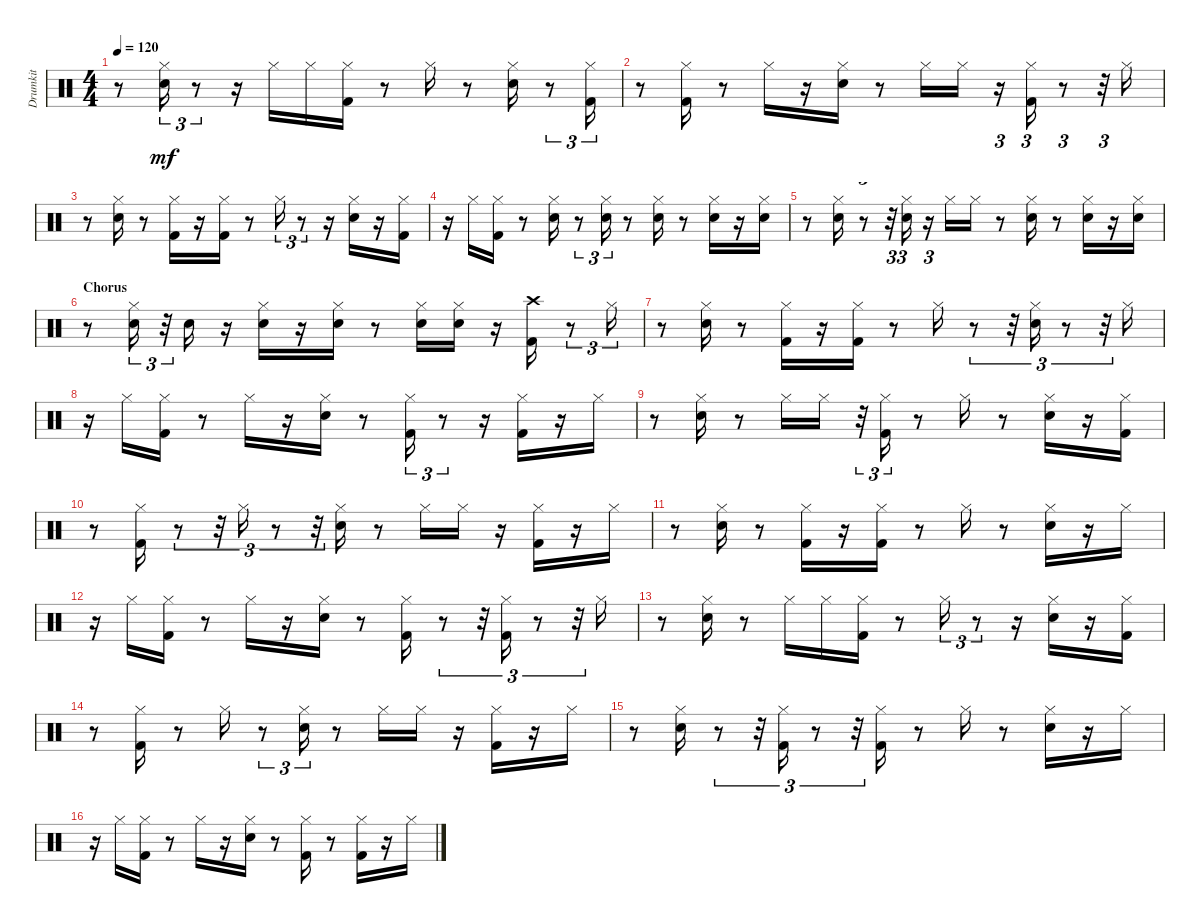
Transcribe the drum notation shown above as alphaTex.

\track ("Drumkit" "Drumkit") {instrument percussion}
\staff {score}
\articulation defaults
\ts (4 4)
\tempo 120
\clef neutral
\ks aminor
r.8{dy mf} ("Snare (hit) 2" "Hi-Hat (closed)").16{tu (3 2)} r.8{tu (3 2)} r.16 "Hi-Hat (closed)".16 "Hi-Hat (closed)".16 ("Kick (hit) 2" "Hi-Hat (closed)").16 r.8 "Hi-Hat (closed)".16 r.8 ("Snare (hit) 2" "Hi-Hat (closed)").16 r.8{tu (3 2)} ("Kick (hit) 2" "Hi-Hat (closed)").16{tu (3 2)} |
r.8 ("Kick (hit) 2" "Hi-Hat (closed)").16 r.8 "Hi-Hat (closed)".16 r.16 ("Snare (hit) 2" "Hi-Hat (closed)").16 r.8 "Hi-Hat (closed)".16 "Hi-Hat (closed)".16 r.16{tu (3 2)} ("Kick (hit) 2" "Hi-Hat (closed)").16{tu (3 2)} r.8{tu (3 2)} r.32{tu (3 2)} "Hi-Hat (closed)".16 |
r.8 ("Snare (hit) 2" "Hi-Hat (closed)").16 r.8 ("Kick (hit) 2" "Hi-Hat (closed)").16 r.16 ("Kick (hit) 2" "Hi-Hat (closed)").16 r.8 "Hi-Hat (closed)".16{tu (3 2)} r.8{tu (3 2)} r.16 ("Snare (hit) 2" "Hi-Hat (closed)").16 r.16 ("Kick (hit) 2" "Hi-Hat (closed)").16 |
r.16 "Hi-Hat (closed)".16 ("Kick (hit) 2" "Hi-Hat (closed)").16 r.8 ("Snare (hit) 2" "Hi-Hat (closed)").16 r.8{tu (3 2)} ("Snare (hit) 2" "Hi-Hat (closed)").16{tu (3 2)} r.8 ("Snare (hit) 2" "Hi-Hat (closed)").16 r.8 ("Snare (hit) 2" "Hi-Hat (closed)").16 r.16 ("Snare (hit) 2" "Hi-Hat (closed)").16 |
r.8 ("Snare (hit) 2" "Hi-Hat (closed)").16 r.8{tu (3 2)} r.32{tu (3 2)} ("Snare (hit) 2" "Hi-Hat (closed)").16{tu (3 2)} r.16{tu (3 2)} "Hi-Hat (closed)".16 "Hi-Hat (closed)".16 r.8 ("Snare (hit) 2" "Hi-Hat (closed)").16 r.8 ("Snare (hit) 2" "Hi-Hat (closed)").16 r.16 ("Snare (hit) 2" "Hi-Hat (closed)").16 |
\section ("" "Chorus")
r.8 ("Snare (hit) 2" "Hi-Hat (closed)").16{tu (3 2)} r.32{tu (3 2)} "Snare (hit) 2".16 r.16 ("Snare (hit) 2" "Hi-Hat (closed)").16 r.16 ("Snare (hit) 2" "Hi-Hat (closed)").16 r.8 ("Snare (hit) 2" "Hi-Hat (closed)").16 ("Snare (hit) 2" "Hi-Hat (closed)").16 r.16 ("Kick (hit) 2" "Crash high (hit)").16 r.8{tu (3 2)} "Hi-Hat (closed)".16{tu (3 2)} |
r.8 ("Snare (hit) 2" "Hi-Hat (closed)").16 r.8 ("Kick (hit) 2" "Hi-Hat (closed)").16 r.16 ("Kick (hit) 2" "Hi-Hat (closed)").16 r.8 "Hi-Hat (closed)".16 r.8{tu (3 2)} r.32{tu (3 2)} ("Snare (hit) 2" "Hi-Hat (closed)").16{tu (3 2)} r.8{tu (3 2)} r.32{tu (3 2)} "Hi-Hat (closed)".16 |
r.16 "Hi-Hat (closed)".16 ("Kick (hit) 2" "Hi-Hat (closed)").16 r.8 "Hi-Hat (closed)".16 r.16 ("Snare (hit) 2" "Hi-Hat (closed)").16 r.8 ("Kick (hit) 2" "Hi-Hat (closed)").16{tu (3 2)} r.8{tu (3 2)} r.16 ("Kick (hit) 2" "Hi-Hat (closed)").16 r.16 "Hi-Hat (closed)".16 |
r.8 ("Snare (hit) 2" "Hi-Hat (closed)").16 r.8 "Hi-Hat (closed)".16 "Hi-Hat (closed)".16 r.32{tu (3 2)} ("Kick (hit) 2" "Hi-Hat (closed)").16{tu (3 2)} r.8 "Hi-Hat (closed)".16 r.8 ("Snare (hit) 2" "Hi-Hat (closed)").16 r.16 ("Kick (hit) 2" "Hi-Hat (closed)").16 |
r.8 ("Kick (hit) 2" "Hi-Hat (closed)").16 r.8{tu (3 2)} r.32{tu (3 2)} "Hi-Hat (closed)".16{tu (3 2)} r.8{tu (3 2)} r.32{tu (3 2)} ("Snare (hit) 2" "Hi-Hat (closed)").16 r.8 "Hi-Hat (closed)".16 "Hi-Hat (closed)".16 r.16 ("Kick (hit) 2" "Hi-Hat (closed)").16 r.16 "Hi-Hat (closed)".16 |
r.8 ("Snare (hit) 2" "Hi-Hat (closed)").16 r.8 ("Kick (hit) 2" "Hi-Hat (closed)").16 r.16 ("Kick (hit) 2" "Hi-Hat (closed)").16 r.8 "Hi-Hat (closed)".16 r.8 ("Snare (hit) 2" "Hi-Hat (closed)").16 r.16 "Hi-Hat (closed)".16 |
r.16 "Hi-Hat (closed)".16 ("Kick (hit) 2" "Hi-Hat (closed)").16 r.8 "Hi-Hat (closed)".16 r.16 ("Snare (hit) 2" "Hi-Hat (closed)").16 r.8 ("Kick (hit) 2" "Hi-Hat (closed)").16 r.8{tu (3 2)} r.32{tu (3 2)} ("Kick (hit) 2" "Hi-Hat (closed)").16{tu (3 2)} r.8{tu (3 2)} r.32{tu (3 2)} "Hi-Hat (closed)".16 |
r.8 ("Snare (hit) 2" "Hi-Hat (closed)").16 r.8 "Hi-Hat (closed)".16 "Hi-Hat (closed)".16 ("Kick (hit) 2" "Hi-Hat (closed)").16 r.8 "Hi-Hat (closed)".16{tu (3 2)} r.8{tu (3 2)} r.16 ("Snare (hit) 2" "Hi-Hat (closed)").16 r.16 ("Kick (hit) 2" "Hi-Hat (closed)").16 |
r.8 ("Kick (hit) 2" "Hi-Hat (closed)").16 r.8 "Hi-Hat (closed)".16 r.8{tu (3 2)} ("Snare (hit) 2" "Hi-Hat (closed)").16{tu (3 2)} r.8 "Hi-Hat (closed)".16 "Hi-Hat (closed)".16 r.16 ("Kick (hit) 2" "Hi-Hat (closed)").16 r.16 "Hi-Hat (closed)".16 |
r.8 ("Snare (hit) 2" "Hi-Hat (closed)").16 r.8{tu (3 2)} r.32{tu (3 2)} ("Kick (hit) 2" "Hi-Hat (closed)").16{tu (3 2)} r.8{tu (3 2)} r.32{tu (3 2)} ("Kick (hit) 2" "Hi-Hat (closed)").16 r.8 "Hi-Hat (closed)".16 r.8 ("Snare (hit) 2" "Hi-Hat (closed)").16 r.16 "Hi-Hat (closed)".16 |
r.16 "Hi-Hat (closed)".16 ("Kick (hit) 2" "Hi-Hat (closed)").16 r.8 "Hi-Hat (closed)".16 r.16 ("Snare (hit) 2" "Hi-Hat (closed)").16 r.8 ("Kick (hit) 2" "Hi-Hat (closed)").16 r.8 ("Kick (hit) 2" "Hi-Hat (closed)").16 r.16 "Hi-Hat (closed)".16
